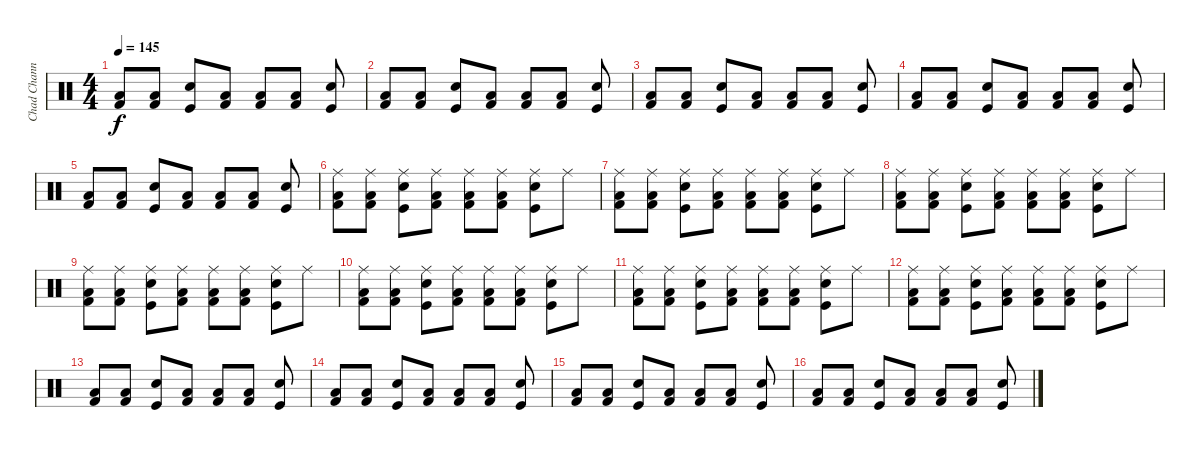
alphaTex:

\track ("Chad Channing" "Chad Chann") {instrument percussion}
\staff {score}
\articulation defaults
\ts (4 4)
\tempo 145
\clef neutral
\ks c
("Low Floor Tom (hit)" "Kick (hit) 2").8{dy f} ("Low Floor Tom (hit)" "Kick (hit) 2").8 ("Snare (hit) 2" "Kick (hit)").8 ("Low Floor Tom (hit)" "Kick (hit) 2").8 ("Low Floor Tom (hit)" "Kick (hit) 2").8 ("Low Floor Tom (hit)" "Kick (hit) 2").8 ("Snare (hit) 2" "Kick (hit)").8 |
("Low Floor Tom (hit)" "Kick (hit) 2").8 ("Low Floor Tom (hit)" "Kick (hit) 2").8 ("Snare (hit) 2" "Kick (hit)").8 ("Low Floor Tom (hit)" "Kick (hit) 2").8 ("Low Floor Tom (hit)" "Kick (hit) 2").8 ("Low Floor Tom (hit)" "Kick (hit) 2").8 ("Snare (hit) 2" "Kick (hit)").8 |
("Low Floor Tom (hit)" "Kick (hit) 2").8 ("Low Floor Tom (hit)" "Kick (hit) 2").8 ("Snare (hit) 2" "Kick (hit)").8 ("Low Floor Tom (hit)" "Kick (hit) 2").8 ("Low Floor Tom (hit)" "Kick (hit) 2").8 ("Low Floor Tom (hit)" "Kick (hit) 2").8 ("Snare (hit) 2" "Kick (hit)").8 |
("Low Floor Tom (hit)" "Kick (hit) 2").8 ("Low Floor Tom (hit)" "Kick (hit) 2").8 ("Snare (hit) 2" "Kick (hit)").8 ("Low Floor Tom (hit)" "Kick (hit) 2").8 ("Low Floor Tom (hit)" "Kick (hit) 2").8 ("Low Floor Tom (hit)" "Kick (hit) 2").8 ("Snare (hit) 2" "Kick (hit)").8 |
("Low Floor Tom (hit)" "Kick (hit) 2").8 ("Low Floor Tom (hit)" "Kick (hit) 2").8 ("Snare (hit) 2" "Kick (hit)").8 ("Low Floor Tom (hit)" "Kick (hit) 2").8 ("Low Floor Tom (hit)" "Kick (hit) 2").8 ("Low Floor Tom (hit)" "Kick (hit) 2").8 ("Snare (hit) 2" "Kick (hit)").8 |
("Ride (middle)" "Low Floor Tom (hit)" "Kick (hit) 2").8 ("Ride (middle)" "Low Floor Tom (hit)" "Kick (hit) 2").8 ("Snare (hit) 2" "Ride (middle)" "Kick (hit)").8 ("Ride (middle)" "Low Floor Tom (hit)" "Kick (hit) 2").8 ("Ride (middle)" "Low Floor Tom (hit)" "Kick (hit) 2").8 ("Ride (middle)" "Low Floor Tom (hit)" "Kick (hit) 2").8 ("Snare (hit) 2" "Ride (middle)" "Kick (hit)").8 "Ride (middle)".8 |
("Ride (middle)" "Low Floor Tom (hit)" "Kick (hit) 2").8 ("Ride (middle)" "Low Floor Tom (hit)" "Kick (hit) 2").8 ("Snare (hit) 2" "Ride (middle)" "Kick (hit)").8 ("Ride (middle)" "Low Floor Tom (hit)" "Kick (hit) 2").8 ("Ride (middle)" "Low Floor Tom (hit)" "Kick (hit) 2").8 ("Ride (middle)" "Low Floor Tom (hit)" "Kick (hit) 2").8 ("Snare (hit) 2" "Ride (middle)" "Kick (hit)").8 "Ride (middle)".8 |
("Ride (middle)" "Low Floor Tom (hit)" "Kick (hit) 2").8 ("Ride (middle)" "Low Floor Tom (hit)" "Kick (hit) 2").8 ("Snare (hit) 2" "Ride (middle)" "Kick (hit)").8 ("Ride (middle)" "Low Floor Tom (hit)" "Kick (hit) 2").8 ("Ride (middle)" "Low Floor Tom (hit)" "Kick (hit) 2").8 ("Ride (middle)" "Low Floor Tom (hit)" "Kick (hit) 2").8 ("Snare (hit) 2" "Ride (middle)" "Kick (hit)").8 "Ride (middle)".8 |
("Ride (middle)" "Low Floor Tom (hit)" "Kick (hit) 2").8 ("Ride (middle)" "Low Floor Tom (hit)" "Kick (hit) 2").8 ("Snare (hit) 2" "Ride (middle)" "Kick (hit)").8 ("Ride (middle)" "Low Floor Tom (hit)" "Kick (hit) 2").8 ("Ride (middle)" "Low Floor Tom (hit)" "Kick (hit) 2").8 ("Ride (middle)" "Low Floor Tom (hit)" "Kick (hit) 2").8 ("Snare (hit) 2" "Ride (middle)" "Kick (hit)").8 "Ride (middle)".8 |
("Ride (middle)" "Low Floor Tom (hit)" "Kick (hit) 2").8 ("Ride (middle)" "Low Floor Tom (hit)" "Kick (hit) 2").8 ("Snare (hit) 2" "Ride (middle)" "Kick (hit)").8 ("Ride (middle)" "Low Floor Tom (hit)" "Kick (hit) 2").8 ("Ride (middle)" "Low Floor Tom (hit)" "Kick (hit) 2").8 ("Ride (middle)" "Low Floor Tom (hit)" "Kick (hit) 2").8 ("Snare (hit) 2" "Ride (middle)" "Kick (hit)").8 "Ride (middle)".8 |
("Ride (middle)" "Low Floor Tom (hit)" "Kick (hit) 2").8 ("Ride (middle)" "Low Floor Tom (hit)" "Kick (hit) 2").8 ("Snare (hit) 2" "Ride (middle)" "Kick (hit)").8 ("Ride (middle)" "Low Floor Tom (hit)" "Kick (hit) 2").8 ("Ride (middle)" "Low Floor Tom (hit)" "Kick (hit) 2").8 ("Ride (middle)" "Low Floor Tom (hit)" "Kick (hit) 2").8 ("Snare (hit) 2" "Ride (middle)" "Kick (hit)").8 "Ride (middle)".8 |
("Ride (middle)" "Low Floor Tom (hit)" "Kick (hit) 2").8 ("Ride (middle)" "Low Floor Tom (hit)" "Kick (hit) 2").8 ("Snare (hit) 2" "Ride (middle)" "Kick (hit)").8 ("Ride (middle)" "Low Floor Tom (hit)" "Kick (hit) 2").8 ("Ride (middle)" "Low Floor Tom (hit)" "Kick (hit) 2").8 ("Ride (middle)" "Low Floor Tom (hit)" "Kick (hit) 2").8 ("Snare (hit) 2" "Ride (middle)" "Kick (hit)").8 "Ride (middle)".8 |
("Low Floor Tom (hit)" "Kick (hit) 2").8 ("Low Floor Tom (hit)" "Kick (hit) 2").8 ("Snare (hit) 2" "Kick (hit)").8 ("Low Floor Tom (hit)" "Kick (hit) 2").8 ("Low Floor Tom (hit)" "Kick (hit) 2").8 ("Low Floor Tom (hit)" "Kick (hit) 2").8 ("Snare (hit) 2" "Kick (hit)").8 |
("Low Floor Tom (hit)" "Kick (hit) 2").8 ("Low Floor Tom (hit)" "Kick (hit) 2").8 ("Snare (hit) 2" "Kick (hit)").8 ("Low Floor Tom (hit)" "Kick (hit) 2").8 ("Low Floor Tom (hit)" "Kick (hit) 2").8 ("Low Floor Tom (hit)" "Kick (hit) 2").8 ("Snare (hit) 2" "Kick (hit)").8 |
("Low Floor Tom (hit)" "Kick (hit) 2").8 ("Low Floor Tom (hit)" "Kick (hit) 2").8 ("Snare (hit) 2" "Kick (hit)").8 ("Low Floor Tom (hit)" "Kick (hit) 2").8 ("Low Floor Tom (hit)" "Kick (hit) 2").8 ("Low Floor Tom (hit)" "Kick (hit) 2").8 ("Snare (hit) 2" "Kick (hit)").8 |
("Low Floor Tom (hit)" "Kick (hit) 2").8 ("Low Floor Tom (hit)" "Kick (hit) 2").8 ("Snare (hit) 2" "Kick (hit)").8 ("Low Floor Tom (hit)" "Kick (hit) 2").8 ("Low Floor Tom (hit)" "Kick (hit) 2").8 ("Low Floor Tom (hit)" "Kick (hit) 2").8 ("Snare (hit) 2" "Kick (hit)").8
